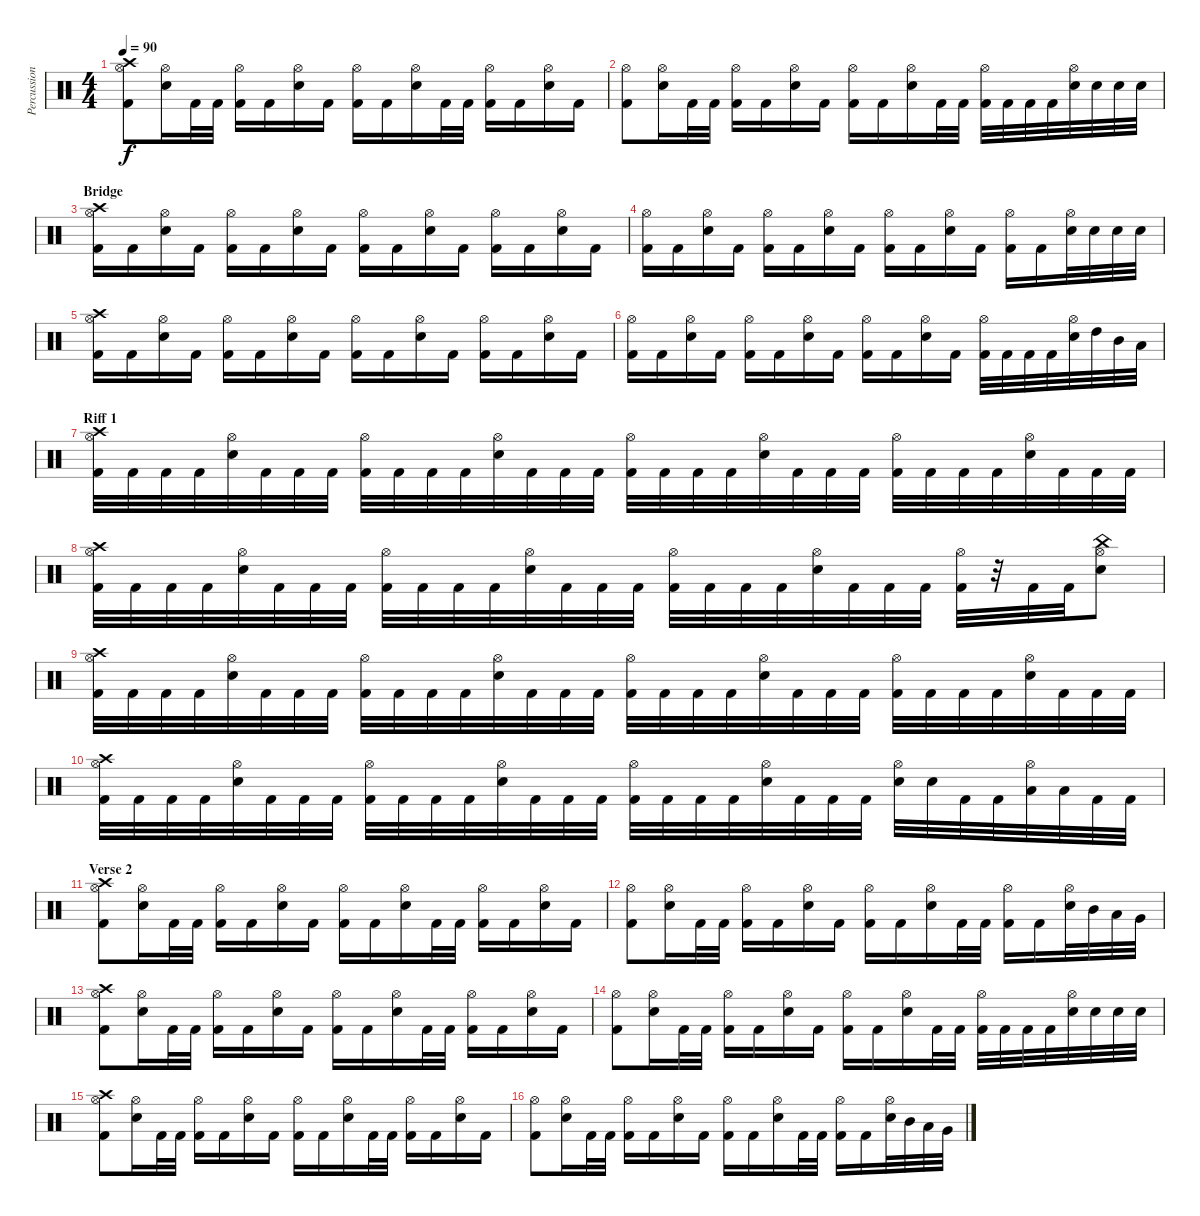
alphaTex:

\track ("Percussions" "Percussion") {instrument percussion}
\staff {score}
\articulation defaults
\ts (4 4)
\tempo 90
\clef neutral
\ks c
("Crash high (hit)" "Hi-Hat (open)" "Kick (hit) 2").8{dy f} ("Hi-Hat (open)" "Electric Snare (hit)").16 "Kick (hit) 2".32 "Kick (hit) 2".32 ("Hi-Hat (open)" "Kick (hit) 2").16 "Kick (hit) 2".16 ("Hi-Hat (open)" "Electric Snare (hit)").16 "Kick (hit) 2".16 ("Hi-Hat (open)" "Kick (hit) 2").16 "Kick (hit) 2".16 ("Hi-Hat (open)" "Electric Snare (hit)").16 "Kick (hit) 2".32 "Kick (hit) 2".32 ("Hi-Hat (open)" "Kick (hit) 2").16 "Kick (hit) 2".16 ("Hi-Hat (open)" "Electric Snare (hit)").16 "Kick (hit) 2".16 |
("Hi-Hat (open)" "Kick (hit) 2").8 ("Hi-Hat (open)" "Electric Snare (hit)").16 "Kick (hit) 2".32 "Kick (hit) 2".32 ("Hi-Hat (open)" "Kick (hit) 2").16 "Kick (hit) 2".16 ("Hi-Hat (open)" "Electric Snare (hit)").16 "Kick (hit) 2".16 ("Hi-Hat (open)" "Kick (hit) 2").16 "Kick (hit) 2".16 ("Hi-Hat (open)" "Electric Snare (hit)").16 "Kick (hit) 2".32 "Kick (hit) 2".32 ("Hi-Hat (open)" "Kick (hit) 2").32 "Kick (hit) 2".32 "Kick (hit) 2".32 "Kick (hit) 2".32 ("Hi-Hat (open)" "Electric Snare (hit)").32 "Electric Snare (hit)".32 "Electric Snare (hit)".32 "Electric Snare (hit)".32 |
\section ("" "Bridge")
("Crash high (hit)" "Hi-Hat (open)" "Kick (hit) 2").16 "Kick (hit) 2".16 ("Hi-Hat (open)" "Electric Snare (hit)").16 "Kick (hit) 2".16 ("Hi-Hat (open)" "Kick (hit) 2").16 "Kick (hit) 2".16 ("Hi-Hat (open)" "Electric Snare (hit)").16 "Kick (hit) 2".16 ("Hi-Hat (open)" "Kick (hit) 2").16 "Kick (hit) 2".16 ("Hi-Hat (open)" "Electric Snare (hit)").16 "Kick (hit) 2".16 ("Hi-Hat (open)" "Kick (hit) 2").16 "Kick (hit) 2".16 ("Hi-Hat (open)" "Electric Snare (hit)").16 "Kick (hit) 2".16 |
("Hi-Hat (open)" "Kick (hit) 2").16 "Kick (hit) 2".16 ("Hi-Hat (open)" "Electric Snare (hit)").16 "Kick (hit) 2".16 ("Hi-Hat (open)" "Kick (hit) 2").16 "Kick (hit) 2".16 ("Hi-Hat (open)" "Electric Snare (hit)").16 "Kick (hit) 2".16 ("Hi-Hat (open)" "Kick (hit) 2").16 "Kick (hit) 2".16 ("Hi-Hat (open)" "Electric Snare (hit)").16 "Kick (hit) 2".16 ("Hi-Hat (open)" "Kick (hit) 2").16 "Kick (hit) 2".16 ("Hi-Hat (open)" "Electric Snare (hit)").32 "Electric Snare (hit)".32 "Electric Snare (hit)".32 "Electric Snare (hit)".32 |
("Crash high (hit)" "Hi-Hat (open)" "Kick (hit) 2").16 "Kick (hit) 2".16 ("Hi-Hat (open)" "Electric Snare (hit)").16 "Kick (hit) 2".16 ("Hi-Hat (open)" "Kick (hit) 2").16 "Kick (hit) 2".16 ("Hi-Hat (open)" "Electric Snare (hit)").16 "Kick (hit) 2".16 ("Hi-Hat (open)" "Kick (hit) 2").16 "Kick (hit) 2".16 ("Hi-Hat (open)" "Electric Snare (hit)").16 "Kick (hit) 2".16 ("Hi-Hat (open)" "Kick (hit) 2").16 "Kick (hit) 2".16 ("Hi-Hat (open)" "Electric Snare (hit)").16 "Kick (hit) 2".16 |
("Hi-Hat (open)" "Kick (hit) 2").16 "Kick (hit) 2".16 ("Hi-Hat (open)" "Electric Snare (hit)").16 "Kick (hit) 2".16 ("Hi-Hat (open)" "Kick (hit) 2").16 "Kick (hit) 2".16 ("Hi-Hat (open)" "Electric Snare (hit)").16 "Kick (hit) 2".16 ("Hi-Hat (open)" "Kick (hit) 2").16 "Kick (hit) 2".16 ("Hi-Hat (open)" "Electric Snare (hit)").16 "Kick (hit) 2".16 ("Hi-Hat (open)" "Kick (hit) 2").32 "Kick (hit) 2".32 "Kick (hit) 2".32 "Kick (hit) 2".32 ("Hi-Hat (open)" "Electric Snare (hit)").32 "High Tom (hit)".32 "Mid Tom (hit)".32 "Low Tom (hit)".32 |
\section ("" "Riff 1")
("Crash high (hit)" "Hi-Hat (open)" "Kick (hit) 2").32 "Kick (hit) 2".32 "Kick (hit) 2".32 "Kick (hit) 2".32 ("Hi-Hat (open)" "Electric Snare (hit)").32 "Kick (hit) 2".32 "Kick (hit) 2".32 "Kick (hit) 2".32 ("Hi-Hat (open)" "Kick (hit) 2").32 "Kick (hit) 2".32 "Kick (hit) 2".32 "Kick (hit) 2".32 ("Hi-Hat (open)" "Electric Snare (hit)").32 "Kick (hit) 2".32 "Kick (hit) 2".32 "Kick (hit) 2".32 ("Hi-Hat (open)" "Kick (hit) 2").32 "Kick (hit) 2".32 "Kick (hit) 2".32 "Kick (hit) 2".32 ("Hi-Hat (open)" "Electric Snare (hit)").32 "Kick (hit) 2".32 "Kick (hit) 2".32 "Kick (hit) 2".32 ("Hi-Hat (open)" "Kick (hit) 2").32 "Kick (hit) 2".32 "Kick (hit) 2".32 "Kick (hit) 2".32 ("Hi-Hat (open)" "Electric Snare (hit)").32 "Kick (hit) 2".32 "Kick (hit) 2".32 "Kick (hit) 2".32 |
("Crash high (hit)" "Hi-Hat (open)" "Kick (hit) 2").32 "Kick (hit) 2".32 "Kick (hit) 2".32 "Kick (hit) 2".32 ("Hi-Hat (open)" "Electric Snare (hit)").32 "Kick (hit) 2".32 "Kick (hit) 2".32 "Kick (hit) 2".32 ("Hi-Hat (open)" "Kick (hit) 2").32 "Kick (hit) 2".32 "Kick (hit) 2".32 "Kick (hit) 2".32 ("Hi-Hat (open)" "Electric Snare (hit)").32 "Kick (hit) 2".32 "Kick (hit) 2".32 "Kick (hit) 2".32 ("Hi-Hat (open)" "Kick (hit) 2").32 "Kick (hit) 2".32 "Kick (hit) 2".32 "Kick (hit) 2".32 ("Hi-Hat (open)" "Electric Snare (hit)").32 "Kick (hit) 2".32 "Kick (hit) 2".32 "Kick (hit) 2".32 ("Hi-Hat (open)" "Kick (hit) 2").32 r.32 "Kick (hit) 2".32 "Kick (hit) 2".32 ("China (hit)" "Hi-Hat (open)" "Electric Snare (hit)").8 |
("Crash high (hit)" "Hi-Hat (open)" "Kick (hit) 2").32 "Kick (hit) 2".32 "Kick (hit) 2".32 "Kick (hit) 2".32 ("Hi-Hat (open)" "Electric Snare (hit)").32 "Kick (hit) 2".32 "Kick (hit) 2".32 "Kick (hit) 2".32 ("Hi-Hat (open)" "Kick (hit) 2").32 "Kick (hit) 2".32 "Kick (hit) 2".32 "Kick (hit) 2".32 ("Hi-Hat (open)" "Electric Snare (hit)").32 "Kick (hit) 2".32 "Kick (hit) 2".32 "Kick (hit) 2".32 ("Hi-Hat (open)" "Kick (hit) 2").32 "Kick (hit) 2".32 "Kick (hit) 2".32 "Kick (hit) 2".32 ("Hi-Hat (open)" "Electric Snare (hit)").32 "Kick (hit) 2".32 "Kick (hit) 2".32 "Kick (hit) 2".32 ("Hi-Hat (open)" "Kick (hit) 2").32 "Kick (hit) 2".32 "Kick (hit) 2".32 "Kick (hit) 2".32 ("Hi-Hat (open)" "Electric Snare (hit)").32 "Kick (hit) 2".32 "Kick (hit) 2".32 "Kick (hit) 2".32 |
("Crash high (hit)" "Hi-Hat (open)" "Kick (hit) 2").32 "Kick (hit) 2".32 "Kick (hit) 2".32 "Kick (hit) 2".32 ("Hi-Hat (open)" "Electric Snare (hit)").32 "Kick (hit) 2".32 "Kick (hit) 2".32 "Kick (hit) 2".32 ("Hi-Hat (open)" "Kick (hit) 2").32 "Kick (hit) 2".32 "Kick (hit) 2".32 "Kick (hit) 2".32 ("Hi-Hat (open)" "Electric Snare (hit)").32 "Kick (hit) 2".32 "Kick (hit) 2".32 "Kick (hit) 2".32 ("Hi-Hat (open)" "Kick (hit) 2").32 "Kick (hit) 2".32 "Kick (hit) 2".32 "Kick (hit) 2".32 ("Hi-Hat (open)" "Electric Snare (hit)").32 "Kick (hit) 2".32 "Kick (hit) 2".32 "Kick (hit) 2".32 ("Hi-Hat (open)" "Electric Snare (hit)").32 "Electric Snare (hit)".32 "Kick (hit) 2".32 "Kick (hit) 2".32 ("Hi-Hat (open)" "Low Tom (hit)").32 "Low Tom (hit)".32 "Kick (hit) 2".32 "Kick (hit) 2".32 |
\section ("" "Verse 2")
("Crash high (hit)" "Hi-Hat (open)" "Kick (hit) 2").8 ("Hi-Hat (open)" "Electric Snare (hit)").16 "Kick (hit) 2".32 "Kick (hit) 2".32 ("Hi-Hat (open)" "Kick (hit) 2").16 "Kick (hit) 2".16 ("Hi-Hat (open)" "Electric Snare (hit)").16 "Kick (hit) 2".16 ("Hi-Hat (open)" "Kick (hit) 2").16 "Kick (hit) 2".16 ("Hi-Hat (open)" "Electric Snare (hit)").16 "Kick (hit) 2".32 "Kick (hit) 2".32 ("Hi-Hat (open)" "Kick (hit) 2").16 "Kick (hit) 2".16 ("Hi-Hat (open)" "Electric Snare (hit)").16 "Kick (hit) 2".16 |
("Hi-Hat (open)" "Kick (hit) 2").8 ("Hi-Hat (open)" "Electric Snare (hit)").16 "Kick (hit) 2".32 "Kick (hit) 2".32 ("Hi-Hat (open)" "Kick (hit) 2").16 "Kick (hit) 2".16 ("Hi-Hat (open)" "Electric Snare (hit)").16 "Kick (hit) 2".16 ("Hi-Hat (open)" "Kick (hit) 2").16 "Kick (hit) 2".16 ("Hi-Hat (open)" "Electric Snare (hit)").16 "Kick (hit) 2".32 "Kick (hit) 2".32 ("Hi-Hat (open)" "Kick (hit) 2").16 "Kick (hit) 2".16 ("Hi-Hat (open)" "Electric Snare (hit)").32 "Mid Tom (hit)".32 "Low Tom (hit)".32 "Very Low Tom (hit)".32 |
("Crash high (hit)" "Hi-Hat (open)" "Kick (hit) 2").8 ("Hi-Hat (open)" "Electric Snare (hit)").16 "Kick (hit) 2".32 "Kick (hit) 2".32 ("Hi-Hat (open)" "Kick (hit) 2").16 "Kick (hit) 2".16 ("Hi-Hat (open)" "Electric Snare (hit)").16 "Kick (hit) 2".16 ("Hi-Hat (open)" "Kick (hit) 2").16 "Kick (hit) 2".16 ("Hi-Hat (open)" "Electric Snare (hit)").16 "Kick (hit) 2".32 "Kick (hit) 2".32 ("Hi-Hat (open)" "Kick (hit) 2").16 "Kick (hit) 2".16 ("Hi-Hat (open)" "Electric Snare (hit)").16 "Kick (hit) 2".16 |
("Hi-Hat (open)" "Kick (hit) 2").8 ("Hi-Hat (open)" "Electric Snare (hit)").16 "Kick (hit) 2".32 "Kick (hit) 2".32 ("Hi-Hat (open)" "Kick (hit) 2").16 "Kick (hit) 2".16 ("Hi-Hat (open)" "Electric Snare (hit)").16 "Kick (hit) 2".16 ("Hi-Hat (open)" "Kick (hit) 2").16 "Kick (hit) 2".16 ("Hi-Hat (open)" "Electric Snare (hit)").16 "Kick (hit) 2".32 "Kick (hit) 2".32 ("Hi-Hat (open)" "Kick (hit) 2").32 "Kick (hit) 2".32 "Kick (hit) 2".32 "Kick (hit) 2".32 ("Hi-Hat (open)" "Electric Snare (hit)").32 "Electric Snare (hit)".32 "Electric Snare (hit)".32 "Electric Snare (hit)".32 |
("Crash high (hit)" "Hi-Hat (open)" "Kick (hit) 2").8 ("Hi-Hat (open)" "Electric Snare (hit)").16 "Kick (hit) 2".32 "Kick (hit) 2".32 ("Hi-Hat (open)" "Kick (hit) 2").16 "Kick (hit) 2".16 ("Hi-Hat (open)" "Electric Snare (hit)").16 "Kick (hit) 2".16 ("Hi-Hat (open)" "Kick (hit) 2").16 "Kick (hit) 2".16 ("Hi-Hat (open)" "Electric Snare (hit)").16 "Kick (hit) 2".32 "Kick (hit) 2".32 ("Hi-Hat (open)" "Kick (hit) 2").16 "Kick (hit) 2".16 ("Hi-Hat (open)" "Electric Snare (hit)").16 "Kick (hit) 2".16 |
("Hi-Hat (open)" "Kick (hit) 2").8 ("Hi-Hat (open)" "Electric Snare (hit)").16 "Kick (hit) 2".32 "Kick (hit) 2".32 ("Hi-Hat (open)" "Kick (hit) 2").16 "Kick (hit) 2".16 ("Hi-Hat (open)" "Electric Snare (hit)").16 "Kick (hit) 2".16 ("Hi-Hat (open)" "Kick (hit) 2").16 "Kick (hit) 2".16 ("Hi-Hat (open)" "Electric Snare (hit)").16 "Kick (hit) 2".32 "Kick (hit) 2".32 ("Hi-Hat (open)" "Kick (hit) 2").16 "Kick (hit) 2".16 ("Hi-Hat (open)" "Electric Snare (hit)").32 "Mid Tom (hit)".32 "Low Tom (hit)".32 "Very Low Tom (hit)".32
